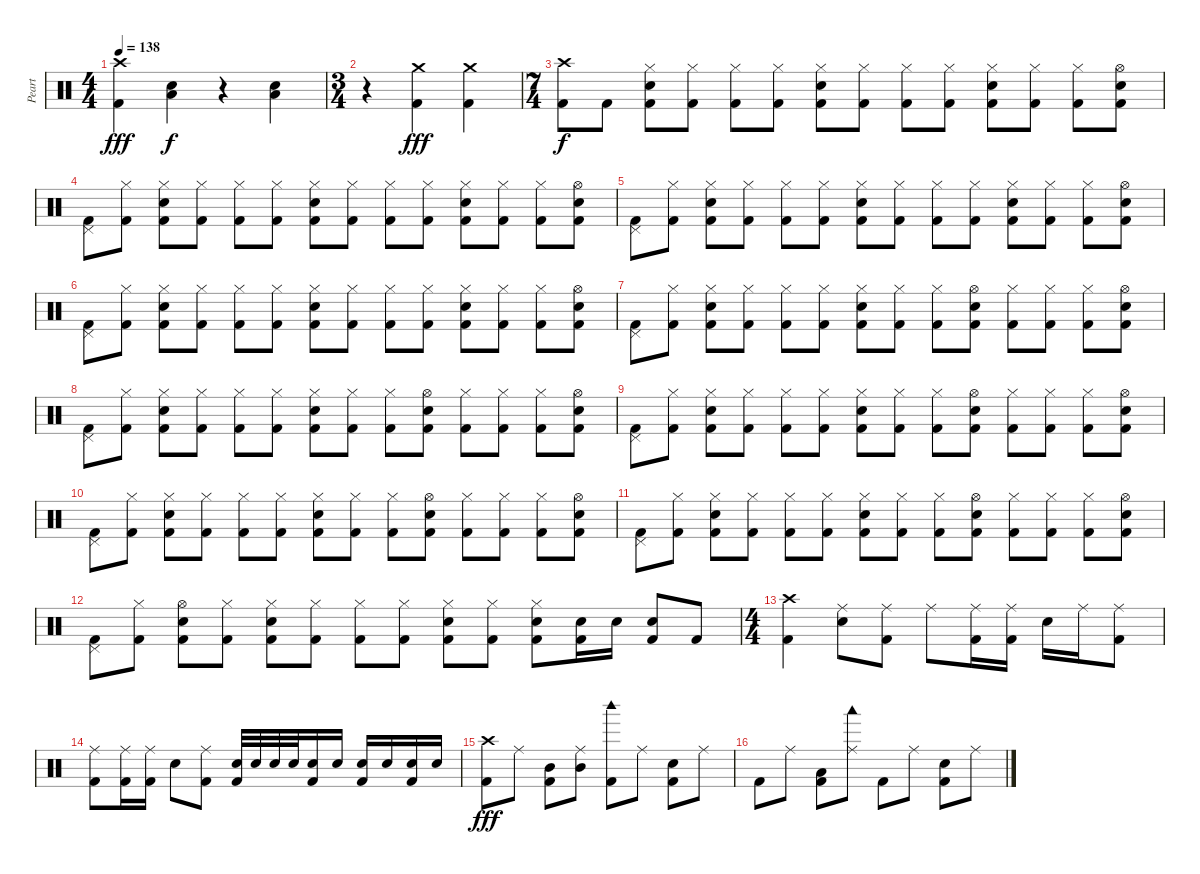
\track ("Peart" "Peart") {instrument percussion}
\staff {score}
\articulation defaults
\ts (4 4)
\tempo 138
\clef neutral
\ks c
("Crash high (hit)" "Kick (hit) 2").4{dy fff} ("Electric Snare (hit)" "Low Floor Tom (hit)").4{dy f} r.4 ("Electric Snare (hit)" "Low Floor Tom (hit)").4 |
\ts (3 4)
r.4 ("Crash medium (hit)" "Kick (hit) 2").4{dy fff} ("Crash medium (hit)" "Kick (hit) 2").4 |
\ts (7 4)
("Crash high (hit)" "Kick (hit) 2").8{dy f} "Kick (hit) 2".8 ("Hi-Hat (closed)" "Kick (hit) 2" "Electric Snare (hit)").8 ("Hi-Hat (closed)" "Kick (hit) 2").8 ("Hi-Hat (closed)" "Kick (hit) 2").8 ("Hi-Hat (closed)" "Kick (hit) 2").8 ("Hi-Hat (closed)" "Kick (hit) 2" "Electric Snare (hit)").8 ("Hi-Hat (closed)" "Kick (hit) 2").8 ("Hi-Hat (closed)" "Kick (hit) 2").8 ("Hi-Hat (closed)" "Kick (hit) 2").8 ("Hi-Hat (closed)" "Kick (hit) 2" "Electric Snare (hit)").8 ("Hi-Hat (closed)" "Kick (hit) 2").8 ("Hi-Hat (closed)" "Kick (hit) 2").8 ("Hi-Hat (open)" "Kick (hit) 2" "Electric Snare (hit)").8 |
("Pedal Hi-Hat (hit)" "Kick (hit) 2").8 ("Hi-Hat (closed)" "Kick (hit) 2").8 ("Hi-Hat (closed)" "Electric Snare (hit)" "Kick (hit) 2").8 ("Hi-Hat (closed)" "Kick (hit) 2").8 ("Hi-Hat (closed)" "Kick (hit) 2").8 ("Hi-Hat (closed)" "Kick (hit) 2").8 ("Hi-Hat (closed)" "Electric Snare (hit)" "Kick (hit) 2").8 ("Hi-Hat (closed)" "Kick (hit) 2").8 ("Hi-Hat (closed)" "Kick (hit) 2").8 ("Hi-Hat (closed)" "Kick (hit) 2").8 ("Hi-Hat (closed)" "Electric Snare (hit)" "Kick (hit) 2").8 ("Hi-Hat (closed)" "Kick (hit) 2").8 ("Hi-Hat (closed)" "Kick (hit) 2").8 ("Hi-Hat (open)" "Electric Snare (hit)" "Kick (hit) 2").8 |
("Pedal Hi-Hat (hit)" "Kick (hit) 2").8 ("Hi-Hat (closed)" "Kick (hit) 2").8 ("Hi-Hat (closed)" "Electric Snare (hit)" "Kick (hit) 2").8 ("Hi-Hat (closed)" "Kick (hit) 2").8 ("Hi-Hat (closed)" "Kick (hit) 2").8 ("Hi-Hat (closed)" "Kick (hit) 2").8 ("Hi-Hat (closed)" "Electric Snare (hit)" "Kick (hit) 2").8 ("Hi-Hat (closed)" "Kick (hit) 2").8 ("Hi-Hat (closed)" "Kick (hit) 2").8 ("Hi-Hat (closed)" "Kick (hit) 2").8 ("Hi-Hat (closed)" "Electric Snare (hit)" "Kick (hit) 2").8 ("Hi-Hat (closed)" "Kick (hit) 2").8 ("Hi-Hat (closed)" "Kick (hit) 2").8 ("Hi-Hat (open)" "Electric Snare (hit)" "Kick (hit) 2").8 |
("Pedal Hi-Hat (hit)" "Kick (hit) 2").8 ("Hi-Hat (closed)" "Kick (hit) 2").8 ("Hi-Hat (closed)" "Electric Snare (hit)" "Kick (hit) 2").8 ("Hi-Hat (closed)" "Kick (hit) 2").8 ("Hi-Hat (closed)" "Kick (hit) 2").8 ("Hi-Hat (closed)" "Kick (hit) 2").8 ("Hi-Hat (closed)" "Electric Snare (hit)" "Kick (hit) 2").8 ("Hi-Hat (closed)" "Kick (hit) 2").8 ("Hi-Hat (closed)" "Kick (hit) 2").8 ("Hi-Hat (closed)" "Kick (hit) 2").8 ("Hi-Hat (closed)" "Electric Snare (hit)" "Kick (hit) 2").8 ("Hi-Hat (closed)" "Kick (hit) 2").8 ("Hi-Hat (closed)" "Kick (hit) 2").8 ("Hi-Hat (open)" "Electric Snare (hit)" "Kick (hit) 2").8 |
("Pedal Hi-Hat (hit)" "Kick (hit) 2").8 ("Hi-Hat (closed)" "Kick (hit) 2").8 ("Hi-Hat (closed)" "Electric Snare (hit)" "Kick (hit) 2").8 ("Hi-Hat (closed)" "Kick (hit) 2").8 ("Hi-Hat (closed)" "Kick (hit) 2").8 ("Hi-Hat (closed)" "Kick (hit) 2").8 ("Hi-Hat (closed)" "Electric Snare (hit)" "Kick (hit) 2").8 ("Hi-Hat (closed)" "Kick (hit) 2").8 ("Hi-Hat (closed)" "Kick (hit) 2").8 ("Hi-Hat (open)" "Electric Snare (hit)" "Kick (hit) 2").8 ("Hi-Hat (closed)" "Kick (hit) 2").8 ("Hi-Hat (closed)" "Kick (hit) 2").8 ("Hi-Hat (closed)" "Kick (hit) 2").8 ("Hi-Hat (open)" "Electric Snare (hit)" "Kick (hit) 2").8 |
("Pedal Hi-Hat (hit)" "Kick (hit) 2").8 ("Hi-Hat (closed)" "Kick (hit) 2").8 ("Hi-Hat (closed)" "Electric Snare (hit)" "Kick (hit) 2").8 ("Hi-Hat (closed)" "Kick (hit) 2").8 ("Hi-Hat (closed)" "Kick (hit) 2").8 ("Hi-Hat (closed)" "Kick (hit) 2").8 ("Hi-Hat (closed)" "Electric Snare (hit)" "Kick (hit) 2").8 ("Hi-Hat (closed)" "Kick (hit) 2").8 ("Hi-Hat (closed)" "Kick (hit) 2").8 ("Hi-Hat (open)" "Electric Snare (hit)" "Kick (hit) 2").8 ("Hi-Hat (closed)" "Kick (hit) 2").8 ("Hi-Hat (closed)" "Kick (hit) 2").8 ("Hi-Hat (closed)" "Kick (hit) 2").8 ("Hi-Hat (open)" "Electric Snare (hit)" "Kick (hit) 2").8 |
("Pedal Hi-Hat (hit)" "Kick (hit) 2").8 ("Hi-Hat (closed)" "Kick (hit) 2").8 ("Hi-Hat (closed)" "Electric Snare (hit)" "Kick (hit) 2").8 ("Hi-Hat (closed)" "Kick (hit) 2").8 ("Hi-Hat (closed)" "Kick (hit) 2").8 ("Hi-Hat (closed)" "Kick (hit) 2").8 ("Hi-Hat (closed)" "Electric Snare (hit)" "Kick (hit) 2").8 ("Hi-Hat (closed)" "Kick (hit) 2").8 ("Hi-Hat (closed)" "Kick (hit) 2").8 ("Hi-Hat (open)" "Electric Snare (hit)" "Kick (hit) 2").8 ("Hi-Hat (closed)" "Kick (hit) 2").8 ("Hi-Hat (closed)" "Kick (hit) 2").8 ("Hi-Hat (closed)" "Kick (hit) 2").8 ("Hi-Hat (open)" "Electric Snare (hit)" "Kick (hit) 2").8 |
("Pedal Hi-Hat (hit)" "Kick (hit) 2").8 ("Hi-Hat (closed)" "Kick (hit) 2").8 ("Hi-Hat (closed)" "Electric Snare (hit)" "Kick (hit) 2").8 ("Hi-Hat (closed)" "Kick (hit) 2").8 ("Hi-Hat (closed)" "Kick (hit) 2").8 ("Hi-Hat (closed)" "Kick (hit) 2").8 ("Hi-Hat (closed)" "Electric Snare (hit)" "Kick (hit) 2").8 ("Hi-Hat (closed)" "Kick (hit) 2").8 ("Hi-Hat (closed)" "Kick (hit) 2").8 ("Hi-Hat (open)" "Electric Snare (hit)" "Kick (hit) 2").8 ("Hi-Hat (closed)" "Kick (hit) 2").8 ("Hi-Hat (closed)" "Kick (hit) 2").8 ("Hi-Hat (closed)" "Kick (hit) 2").8 ("Hi-Hat (open)" "Electric Snare (hit)" "Kick (hit) 2").8 |
("Pedal Hi-Hat (hit)" "Kick (hit) 2").8 ("Hi-Hat (closed)" "Kick (hit) 2").8 ("Hi-Hat (closed)" "Electric Snare (hit)" "Kick (hit) 2").8 ("Hi-Hat (closed)" "Kick (hit) 2").8 ("Hi-Hat (closed)" "Kick (hit) 2").8 ("Hi-Hat (closed)" "Kick (hit) 2").8 ("Hi-Hat (closed)" "Electric Snare (hit)" "Kick (hit) 2").8 ("Hi-Hat (closed)" "Kick (hit) 2").8 ("Hi-Hat (closed)" "Kick (hit) 2").8 ("Hi-Hat (open)" "Electric Snare (hit)" "Kick (hit) 2").8 ("Hi-Hat (closed)" "Kick (hit) 2").8 ("Hi-Hat (closed)" "Kick (hit) 2").8 ("Hi-Hat (closed)" "Kick (hit) 2").8 ("Hi-Hat (open)" "Electric Snare (hit)" "Kick (hit) 2").8 |
("Pedal Hi-Hat (hit)" "Kick (hit) 2").8 ("Hi-Hat (closed)" "Kick (hit) 2").8 ("Hi-Hat (open)" "Electric Snare (hit)" "Kick (hit) 2").8 ("Hi-Hat (closed)" "Kick (hit) 2").8 ("Hi-Hat (closed)" "Electric Snare (hit)" "Kick (hit) 2").8 ("Hi-Hat (closed)" "Kick (hit) 2").8 ("Hi-Hat (closed)" "Kick (hit) 2").8 ("Hi-Hat (closed)" "Kick (hit) 2").8 ("Hi-Hat (closed)" "Electric Snare (hit)" "Kick (hit) 2").8 ("Hi-Hat (closed)" "Kick (hit) 2").8 ("Hi-Hat (closed)" "Electric Snare (hit)" "Kick (hit) 2").8 ("Electric Snare (hit)" "Kick (hit) 2").16 "Electric Snare (hit)".16 ("Electric Snare (hit)" "Kick (hit) 2").8 "Kick (hit) 2".8 |
\ts (4 4)
("Crash high (hit)" "Kick (hit) 2").4 ("Ride (middle)" "Electric Snare (hit)").8 ("Ride (middle)" "Kick (hit) 2").8 "Ride (middle)".8 ("Ride (middle)" "Kick (hit) 2").16 ("Ride (middle)" "Kick (hit) 2").16 "Electric Snare (hit)".16 "Ride (middle)".16 ("Ride (middle)" "Kick (hit) 2").8 |
("Ride (middle)" "Kick (hit) 2").8 ("Ride (middle)" "Kick (hit) 2").16 ("Ride (middle)" "Kick (hit) 2").16 "Electric Snare (hit)".8 ("Ride (middle)" "Kick (hit) 2").8 ("Electric Snare (hit)" "Kick (hit) 2").32 "Electric Snare (hit)".32 "Electric Snare (hit)".32 "Electric Snare (hit)".32 ("Electric Snare (hit)" "Kick (hit) 2").16 "Electric Snare (hit)".16 ("Electric Snare (hit)" "Kick (hit) 2").16 "Electric Snare (hit)".16 ("Electric Snare (hit)" "Kick (hit) 2").16 "Electric Snare (hit)".16 |
("Crash high (hit)" "Kick (hit) 2").8{dy fff} "Ride (middle)".8 ("Mid Tom (hit)" "Kick (hit) 2").8 ("Ride (middle)" "Mid Tom (hit)").8 ("Woodblock high (hit)" "Kick (hit) 2").8 "Ride (middle)".8 ("Electric Snare (hit)" "Kick (hit) 2").8 "Ride (middle)".8 |
"Kick (hit) 2".8 "Ride (middle)".8 ("Low Tom (hit)" "Kick (hit) 2").8 ("Ride (middle)" "Woodblock low (hit)").8 "Kick (hit) 2".8 "Ride (middle)".8 ("Electric Snare (hit)" "Kick (hit) 2").8 "Ride (middle)".8
